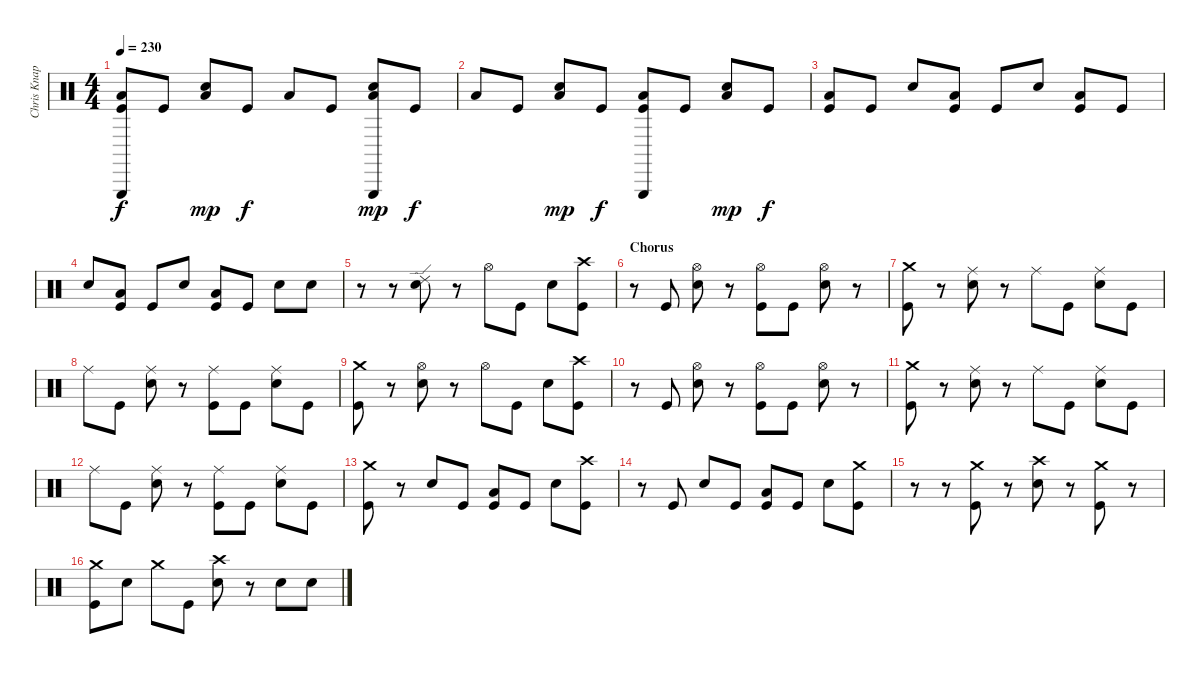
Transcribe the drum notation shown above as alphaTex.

\track ("Chris Knapp" "Chris Knap") {instrument percussion}
\staff {score}
\articulation defaults
\ts (4 4)
\tempo 230
\clef neutral
\ks c
("Triangle (hit)" "Low Floor Tom (hit)" "Kick (hit)").8{dy f} "Kick (hit)".8 ("Electric Snare (hit)" "Low Floor Tom (hit)").8{dy mp} "Kick (hit)".8{dy f} "Low Floor Tom (hit)".8 "Kick (hit)".8 ("Triangle (hit)" "Electric Snare (hit)" "Low Floor Tom (hit)").8{dy mp} "Kick (hit)".8{dy f} |
"Low Floor Tom (hit)".8 "Kick (hit)".8 ("Electric Snare (hit)" "Low Floor Tom (hit)").8{dy mp} "Kick (hit)".8{dy f} ("Triangle (hit)" "Low Floor Tom (hit)" "Kick (hit)").8 "Kick (hit)".8 ("Electric Snare (hit)" "Low Floor Tom (hit)").8{dy mp} "Kick (hit)".8{dy f} |
("Low Floor Tom (hit)" "Kick (hit)").8 "Kick (hit)".8 "Electric Snare (hit)".8 ("Low Floor Tom (hit)" "Kick (hit)").8 "Kick (hit)".8 "Electric Snare (hit)".8 ("Low Floor Tom (hit)" "Kick (hit)").8 "Kick (hit)".8 |
"Electric Snare (hit)".8 ("Low Floor Tom (hit)" "Kick (hit)").8 "Kick (hit)".8 "Electric Snare (hit)".8 ("Low Floor Tom (hit)" "Kick (hit)").8 "Kick (hit)".8 "Electric Snare (hit)".8 "Electric Snare (hit)".8 |
r.8 r.8 ("Ride (edge) 2" "Electric Snare (hit)").8 r.8 "Hi-Hat (open)".8 "Kick (hit)".8 "Electric Snare (hit)".8 ("Crash high (hit)" "Kick (hit)").8 |
\section ("" "Chorus")
r.8 "Kick (hit)".8 ("Hi-Hat (open)" "Electric Snare (hit)").8 r.8 ("Hi-Hat (open)" "Kick (hit)").8 "Kick (hit)".8 ("Hi-Hat (open)" "Electric Snare (hit)").8 r.8 |
("Crash medium (hit)" "Kick (hit)").8 r.8 ("Ride (middle)" "Electric Snare (hit)").8 r.8 "Ride (middle)".8 "Kick (hit)".8 ("Ride (middle)" "Electric Snare (hit)").8 "Kick (hit)".8 |
"Ride (middle)".8 "Kick (hit)".8 ("Ride (middle)" "Electric Snare (hit)").8 r.8 ("Ride (middle)" "Kick (hit)").8 "Kick (hit)".8 ("Ride (middle)" "Electric Snare (hit)").8 "Kick (hit)".8 |
("Crash medium (hit)" "Kick (hit)").8 r.8 ("Hi-Hat (open)" "Electric Snare (hit)").8 r.8 "Hi-Hat (open)".8 "Kick (hit)".8 "Electric Snare (hit)".8 ("Crash high (hit)" "Kick (hit)").8 |
r.8 "Kick (hit)".8 ("Hi-Hat (open)" "Electric Snare (hit)").8 r.8 ("Hi-Hat (open)" "Kick (hit)").8 "Kick (hit)".8 ("Hi-Hat (open)" "Electric Snare (hit)").8 r.8 |
("Crash medium (hit)" "Kick (hit)").8 r.8 ("Ride (middle)" "Electric Snare (hit)").8 r.8 "Ride (middle)".8 "Kick (hit)".8 ("Ride (middle)" "Electric Snare (hit)").8 "Kick (hit)".8 |
"Ride (middle)".8 "Kick (hit)".8 ("Ride (middle)" "Electric Snare (hit)").8 r.8 ("Ride (middle)" "Kick (hit)").8 "Kick (hit)".8 ("Ride (middle)" "Electric Snare (hit)").8 "Kick (hit)".8 |
("Crash medium (hit)" "Kick (hit)").8 r.8 "Electric Snare (hit)".8 "Kick (hit)".8 ("Low Floor Tom (hit)" "Kick (hit)").8 "Kick (hit)".8 "Electric Snare (hit)".8 ("Crash high (hit)" "Kick (hit)").8 |
r.8 "Kick (hit)".8 "Electric Snare (hit)".8 "Kick (hit)".8 ("Low Floor Tom (hit)" "Kick (hit)").8 "Kick (hit)".8 "Electric Snare (hit)".8 ("Crash medium (hit)" "Kick (hit)").8 |
r.8 r.8 ("Crash medium (hit)" "Kick (hit)").8 r.8 ("Crash high (hit)" "Electric Snare (hit)").8 r.8 ("Crash medium (hit)" "Kick (hit)").8 r.8 |
("Crash medium (hit)" "Kick (hit)").8 "Electric Snare (hit)".8 "Crash medium (hit)".8 "Kick (hit)".8 ("Crash high (hit)" "Electric Snare (hit)").8 r.8 "Electric Snare (hit)".8 "Electric Snare (hit)".8
